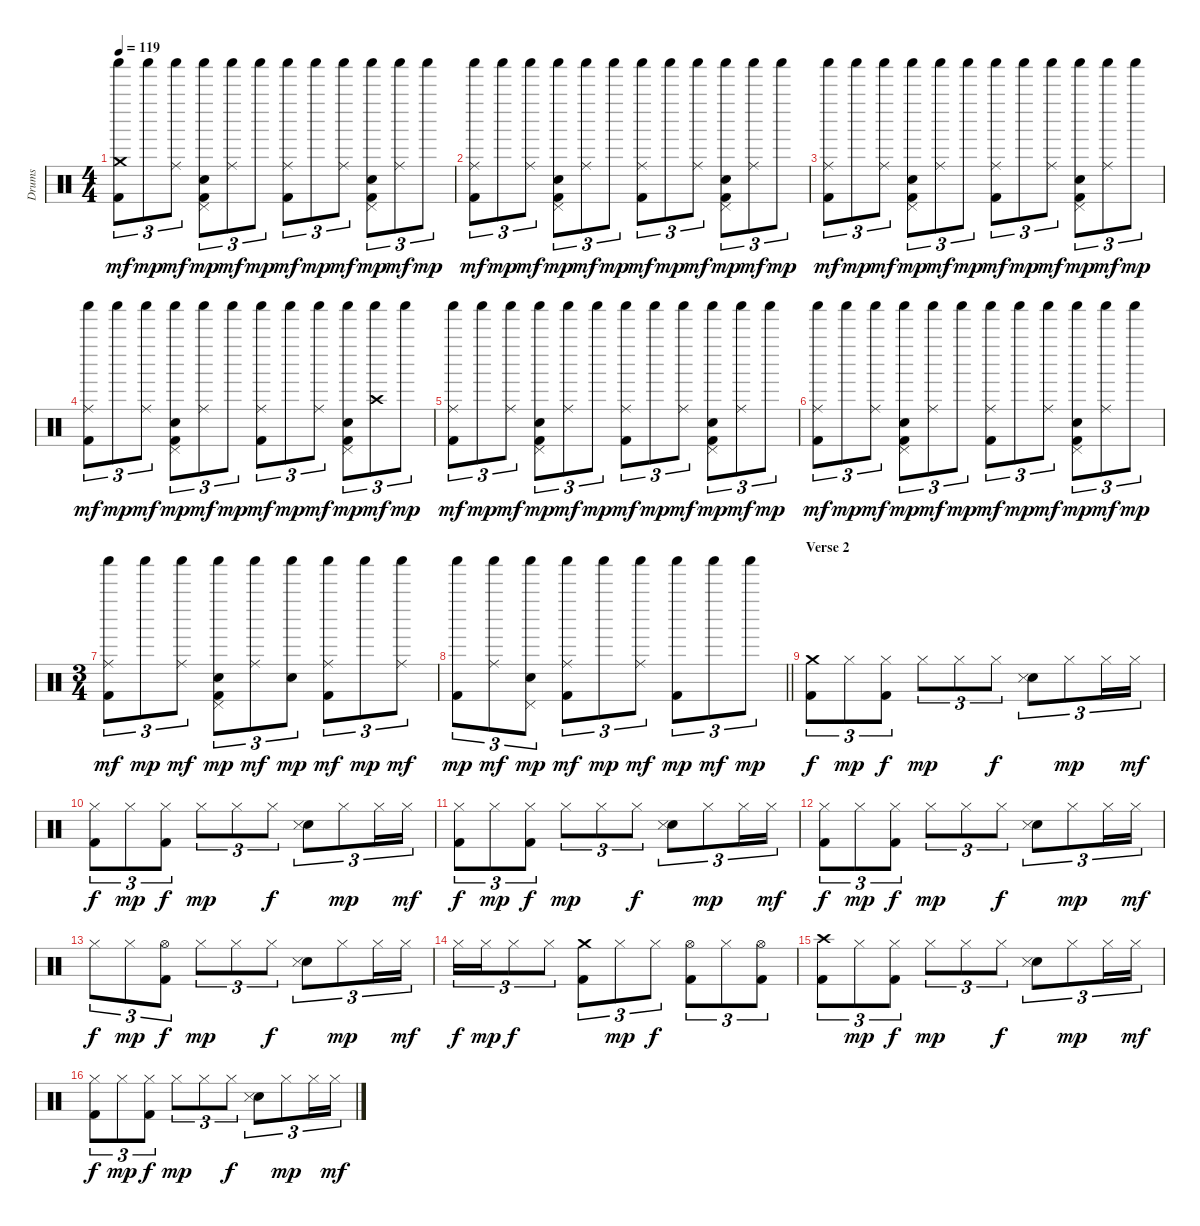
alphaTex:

\track ("Drums" "Drums") {instrument percussion}
\staff {score}
\articulation defaults
\ts (4 4)
\tempo 119
\clef neutral
\ks c
("Crash medium (hit)" "Shaker (hit)" "Kick (hit) 2").8{tu (3 2) dy mf} "Shaker (hit)".8{tu (3 2) dy mp} ("Ride (middle)" "Shaker (hit)").8{tu (3 2) dy mf} ("Pedal Hi-Hat (hit)" "Shaker (hit)" "Electric Snare (hit)" "Kick (hit) 2").8{tu (3 2) dy mp} ("Ride (middle)" "Shaker (hit)").8{tu (3 2) dy mf} "Shaker (hit)".8{tu (3 2) dy mp} ("Ride (middle)" "Shaker (hit)" "Kick (hit) 2").8{tu (3 2) dy mf} "Shaker (hit)".8{tu (3 2) dy mp} ("Ride (middle)" "Shaker (hit)").8{tu (3 2) dy mf} ("Pedal Hi-Hat (hit)" "Shaker (hit)" "Electric Snare (hit)" "Kick (hit) 2").8{tu (3 2) dy mp} ("Ride (middle)" "Shaker (hit)").8{tu (3 2) dy mf} "Shaker (hit)".8{tu (3 2) dy mp} |
("Ride (middle)" "Shaker (hit)" "Kick (hit) 2").8{tu (3 2) dy mf} "Shaker (hit)".8{tu (3 2) dy mp} ("Ride (middle)" "Shaker (hit)").8{tu (3 2) dy mf} ("Pedal Hi-Hat (hit)" "Shaker (hit)" "Electric Snare (hit)" "Kick (hit) 2").8{tu (3 2) dy mp} ("Ride (middle)" "Shaker (hit)").8{tu (3 2) dy mf} "Shaker (hit)".8{tu (3 2) dy mp} ("Ride (middle)" "Shaker (hit)" "Kick (hit) 2").8{tu (3 2) dy mf} "Shaker (hit)".8{tu (3 2) dy mp} ("Ride (middle)" "Shaker (hit)").8{tu (3 2) dy mf} ("Pedal Hi-Hat (hit)" "Shaker (hit)" "Electric Snare (hit)" "Kick (hit) 2").8{tu (3 2) dy mp} ("Ride (middle)" "Shaker (hit)").8{tu (3 2) dy mf} "Shaker (hit)".8{tu (3 2) dy mp} |
("Ride (middle)" "Shaker (hit)" "Kick (hit) 2").8{tu (3 2) dy mf} "Shaker (hit)".8{tu (3 2) dy mp} ("Ride (middle)" "Shaker (hit)").8{tu (3 2) dy mf} ("Pedal Hi-Hat (hit)" "Shaker (hit)" "Electric Snare (hit)" "Kick (hit) 2").8{tu (3 2) dy mp} ("Ride (middle)" "Shaker (hit)").8{tu (3 2) dy mf} "Shaker (hit)".8{tu (3 2) dy mp} ("Ride (middle)" "Shaker (hit)" "Kick (hit) 2").8{tu (3 2) dy mf} "Shaker (hit)".8{tu (3 2) dy mp} ("Ride (middle)" "Shaker (hit)").8{tu (3 2) dy mf} ("Pedal Hi-Hat (hit)" "Shaker (hit)" "Electric Snare (hit)" "Kick (hit) 2").8{tu (3 2) dy mp} ("Ride (middle)" "Shaker (hit)").8{tu (3 2) dy mf} "Shaker (hit)".8{tu (3 2) dy mp} |
("Ride (middle)" "Shaker (hit)" "Kick (hit) 2").8{tu (3 2) dy mf} "Shaker (hit)".8{tu (3 2) dy mp} ("Ride (middle)" "Shaker (hit)").8{tu (3 2) dy mf} ("Pedal Hi-Hat (hit)" "Shaker (hit)" "Electric Snare (hit)" "Kick (hit) 2").8{tu (3 2) dy mp} ("Ride (middle)" "Shaker (hit)").8{tu (3 2) dy mf} "Shaker (hit)".8{tu (3 2) dy mp} ("Ride (middle)" "Shaker (hit)" "Kick (hit) 2").8{tu (3 2) dy mf} "Shaker (hit)".8{tu (3 2) dy mp} ("Ride (middle)" "Shaker (hit)").8{tu (3 2) dy mf} ("Pedal Hi-Hat (hit)" "Shaker (hit)" "Electric Snare (hit)" "Kick (hit) 2").8{tu (3 2) dy mp} ("Crash high (hit)" "Shaker (hit)").8{tu (3 2) dy mf} "Shaker (hit)".8{tu (3 2) dy mp} |
("Ride (middle)" "Shaker (hit)" "Kick (hit) 2").8{tu (3 2) dy mf} "Shaker (hit)".8{tu (3 2) dy mp} ("Ride (middle)" "Shaker (hit)").8{tu (3 2) dy mf} ("Pedal Hi-Hat (hit)" "Shaker (hit)" "Electric Snare (hit)" "Kick (hit) 2").8{tu (3 2) dy mp} ("Ride (middle)" "Shaker (hit)").8{tu (3 2) dy mf} "Shaker (hit)".8{tu (3 2) dy mp} ("Ride (middle)" "Shaker (hit)" "Kick (hit) 2").8{tu (3 2) dy mf} "Shaker (hit)".8{tu (3 2) dy mp} ("Ride (middle)" "Shaker (hit)").8{tu (3 2) dy mf} ("Pedal Hi-Hat (hit)" "Shaker (hit)" "Electric Snare (hit)" "Kick (hit) 2").8{tu (3 2) dy mp} ("Ride (middle)" "Shaker (hit)").8{tu (3 2) dy mf} "Shaker (hit)".8{tu (3 2) dy mp} |
("Ride (middle)" "Shaker (hit)" "Kick (hit) 2").8{tu (3 2) dy mf} "Shaker (hit)".8{tu (3 2) dy mp} ("Ride (middle)" "Shaker (hit)").8{tu (3 2) dy mf} ("Pedal Hi-Hat (hit)" "Shaker (hit)" "Electric Snare (hit)" "Kick (hit) 2").8{tu (3 2) dy mp} ("Ride (middle)" "Shaker (hit)").8{tu (3 2) dy mf} "Shaker (hit)".8{tu (3 2) dy mp} ("Ride (middle)" "Shaker (hit)" "Kick (hit) 2").8{tu (3 2) dy mf} "Shaker (hit)".8{tu (3 2) dy mp} ("Ride (middle)" "Shaker (hit)").8{tu (3 2) dy mf} ("Pedal Hi-Hat (hit)" "Shaker (hit)" "Electric Snare (hit)" "Kick (hit) 2").8{tu (3 2) dy mp} ("Ride (middle)" "Shaker (hit)").8{tu (3 2) dy mf} "Shaker (hit)".8{tu (3 2) dy mp} |
\ts (3 4)
("Ride (middle)" "Shaker (hit)" "Kick (hit) 2").8{tu (3 2) dy mf} "Shaker (hit)".8{tu (3 2) dy mp} ("Ride (middle)" "Shaker (hit)").8{tu (3 2) dy mf} ("Pedal Hi-Hat (hit)" "Shaker (hit)" "Electric Snare (hit)" "Kick (hit) 2").8{tu (3 2) dy mp} ("Ride (middle)" "Shaker (hit)").8{tu (3 2) dy mf} ("Shaker (hit)" "Electric Snare (hit)").8{tu (3 2) dy mp} ("Ride (middle)" "Shaker (hit)" "Kick (hit) 2").8{tu (3 2) dy mf} "Shaker (hit)".8{tu (3 2) dy mp} ("Ride (middle)" "Shaker (hit)").8{tu (3 2) dy mf} |
\barLineRight lightlight
("Shaker (hit)" "Kick (hit) 2").8{tu (3 2) dy mp} ("Ride (middle)" "Shaker (hit)").8{tu (3 2) dy mf} ("Pedal Hi-Hat (hit)" "Shaker (hit)" "Electric Snare (hit)").8{tu (3 2) dy mp} ("Ride (middle)" "Shaker (hit)" "Kick (hit) 2").8{tu (3 2) dy mf} "Shaker (hit)".8{tu (3 2) dy mp} ("Ride (middle)" "Shaker (hit)").8{tu (3 2) dy mf} ("Shaker (hit)" "Kick (hit) 2").8{tu (3 2) dy mp} "Shaker (hit)".8{tu (3 2) dy mf} "Shaker (hit)".8{tu (3 2) dy mp} |
\section ("" "Verse 2")
("Crash medium (hit)" "Kick (hit) 2").8{tu (3 2) dy f} "Hi-Hat (closed)".8{tu (3 2) dy mp} ("Hi-Hat (closed)" "Kick (hit) 2").8{tu (3 2) dy f} "Hi-Hat (closed)".8{tu (3 2) dy mp} "Hi-Hat (closed)".8{tu (3 2)} "Hi-Hat (closed)".8{tu (3 2) dy f} ("Electric Snare (hit)" "Snare (side stick) 3").8{tu (3 2)} "Hi-Hat (closed)".8{tu (3 2) dy mp} "Hi-Hat (closed)".16{tu (3 2)} "Hi-Hat (closed)".16{tu (3 2) dy mf} |
("Hi-Hat (closed)" "Kick (hit) 2").8{tu (3 2) dy f} "Hi-Hat (closed)".8{tu (3 2) dy mp} ("Hi-Hat (closed)" "Kick (hit) 2").8{tu (3 2) dy f} "Hi-Hat (closed)".8{tu (3 2) dy mp} "Hi-Hat (closed)".8{tu (3 2)} "Hi-Hat (closed)".8{tu (3 2) dy f} ("Electric Snare (hit)" "Snare (side stick) 3").8{tu (3 2)} "Hi-Hat (closed)".8{tu (3 2) dy mp} "Hi-Hat (closed)".16{tu (3 2)} "Hi-Hat (closed)".16{tu (3 2) dy mf} |
("Hi-Hat (closed)" "Kick (hit) 2").8{tu (3 2) dy f} "Hi-Hat (closed)".8{tu (3 2) dy mp} ("Hi-Hat (closed)" "Kick (hit) 2").8{tu (3 2) dy f} "Hi-Hat (closed)".8{tu (3 2) dy mp} "Hi-Hat (closed)".8{tu (3 2)} "Hi-Hat (closed)".8{tu (3 2) dy f} ("Electric Snare (hit)" "Snare (side stick) 3").8{tu (3 2)} "Hi-Hat (closed)".8{tu (3 2) dy mp} "Hi-Hat (closed)".16{tu (3 2)} "Hi-Hat (closed)".16{tu (3 2) dy mf} |
("Hi-Hat (closed)" "Kick (hit) 2").8{tu (3 2) dy f} "Hi-Hat (closed)".8{tu (3 2) dy mp} ("Hi-Hat (closed)" "Kick (hit) 2").8{tu (3 2) dy f} "Hi-Hat (closed)".8{tu (3 2) dy mp} "Hi-Hat (closed)".8{tu (3 2)} "Hi-Hat (closed)".8{tu (3 2) dy f} ("Electric Snare (hit)" "Snare (side stick) 3").8{tu (3 2)} "Hi-Hat (closed)".8{tu (3 2) dy mp} "Hi-Hat (closed)".16{tu (3 2)} "Hi-Hat (closed)".16{tu (3 2) dy mf} |
"Hi-Hat (closed)".8{tu (3 2) dy f} "Hi-Hat (closed)".8{tu (3 2) dy mp} ("Hi-Hat (open)" "Kick (hit) 2").8{tu (3 2) dy f} "Hi-Hat (closed)".8{tu (3 2) dy mp} "Hi-Hat (closed)".8{tu (3 2)} "Hi-Hat (closed)".8{tu (3 2) dy f} ("Electric Snare (hit)" "Snare (side stick) 3").8{tu (3 2)} "Hi-Hat (closed)".8{tu (3 2) dy mp} "Hi-Hat (closed)".16{tu (3 2)} "Hi-Hat (closed)".16{tu (3 2) dy mf} |
"Hi-Hat (closed)".16{tu (3 2) dy f} "Hi-Hat (closed)".16{tu (3 2) dy mp} "Hi-Hat (closed)".8{tu (3 2) dy f} "Hi-Hat (closed)".8{tu (3 2)} ("Crash medium (hit)" "Kick (hit) 2").8{tu (3 2)} "Hi-Hat (closed)".8{tu (3 2) dy mp} "Hi-Hat (closed)".8{tu (3 2) dy f} ("Hi-Hat (open)" "Kick (hit) 2").8{tu (3 2)} "Hi-Hat (closed)".8{tu (3 2)} ("Hi-Hat (open)" "Kick (hit) 2").8{tu (3 2)} |
("Crash high (hit)" "Kick (hit) 2").8{tu (3 2)} "Hi-Hat (closed)".8{tu (3 2) dy mp} ("Hi-Hat (closed)" "Kick (hit) 2").8{tu (3 2) dy f} "Hi-Hat (closed)".8{tu (3 2) dy mp} "Hi-Hat (closed)".8{tu (3 2)} "Hi-Hat (closed)".8{tu (3 2) dy f} ("Electric Snare (hit)" "Snare (side stick) 3").8{tu (3 2)} "Hi-Hat (closed)".8{tu (3 2) dy mp} "Hi-Hat (closed)".16{tu (3 2)} "Hi-Hat (closed)".16{tu (3 2) dy mf} |
("Hi-Hat (closed)" "Kick (hit) 2").8{tu (3 2) dy f} "Hi-Hat (closed)".8{tu (3 2) dy mp} ("Hi-Hat (closed)" "Kick (hit) 2").8{tu (3 2) dy f} "Hi-Hat (closed)".8{tu (3 2) dy mp} "Hi-Hat (closed)".8{tu (3 2)} "Hi-Hat (closed)".8{tu (3 2) dy f} ("Electric Snare (hit)" "Snare (side stick) 3").8{tu (3 2)} "Hi-Hat (closed)".8{tu (3 2) dy mp} "Hi-Hat (closed)".16{tu (3 2)} "Hi-Hat (closed)".16{tu (3 2) dy mf}
